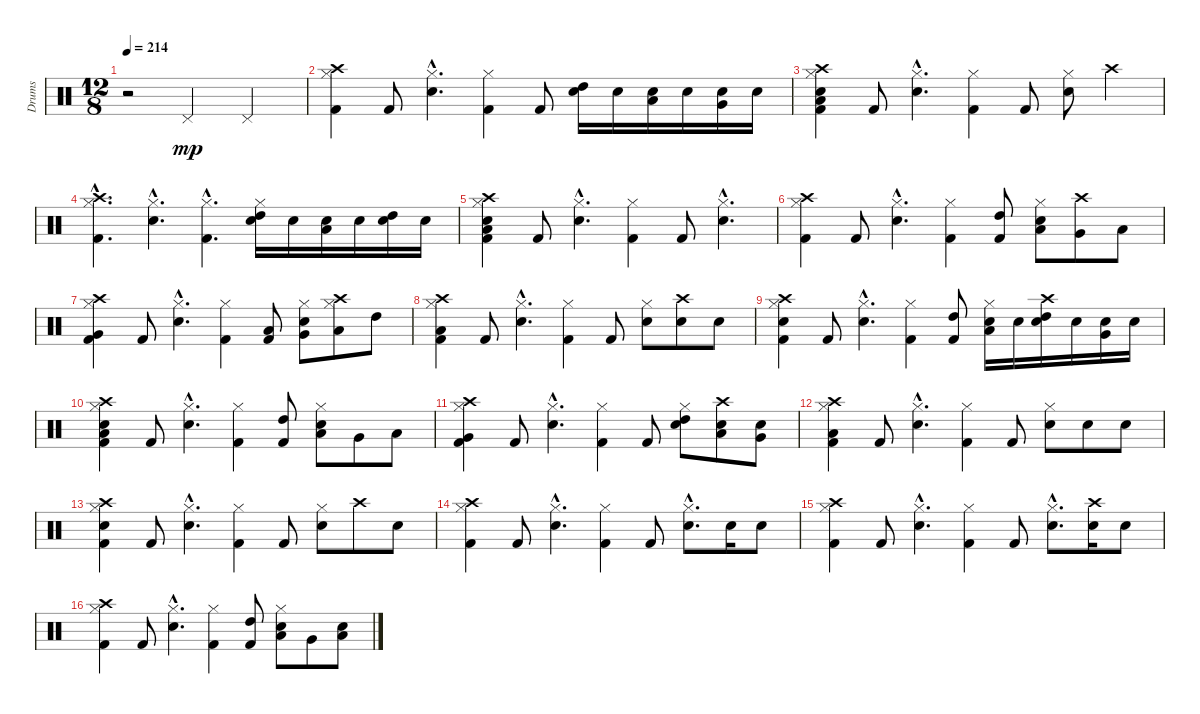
\track ("Drums" "Drums") {instrument percussion}
\staff {score}
\articulation defaults
\ts (12 8)
\tempo 214
\clef neutral
\ks c
r.2{dy mp} "Pedal Hi-Hat (hit)".2{balance 8} "Pedal Hi-Hat (hit)".2 |
("Hi-Hat (closed)" "Kick (hit) 2" "Crash high (hit)").4 "Kick (hit) 2".8 ("Hi-Hat (closed)"{hac} "Snare (hit) 2"{hac}).4{d} ("Hi-Hat (closed)" "Kick (hit) 2").4 "Kick (hit) 2".8 ("High Tom (hit)" "Electric Snare (hit)").16 "Snare (hit) 2".16 ("Low Tom (hit)" "Electric Snare (hit)").16 "Snare (hit) 2".16 ("Very Low Tom (hit)" "Electric Snare (hit)").16 "Snare (hit) 2".16 |
("Hi-Hat (closed)" "Low Floor Tom (hit)" "Crash high (hit)" "Electric Snare (hit)" "Kick (hit) 2").4 "Kick (hit) 2".8 ("Hi-Hat (closed)"{hac} "Snare (hit) 2"{hac}).4{d} ("Hi-Hat (closed)" "Kick (hit) 2").4 "Kick (hit) 2".8 ("Hi-Hat (closed)" "Snare (hit) 2").8 "Crash high (hit)".4 |
("Hi-Hat (closed)"{hac} "Crash high (hit)"{hac} "Kick (hit) 2"{hac}).4{d} ("Hi-Hat (closed)"{hac} "Snare (hit) 2"{hac}).4{d} ("Hi-Hat (closed)"{hac} "Kick (hit) 2"{hac}).4{d} ("Hi-Hat (closed)" "High Tom (hit)" "Snare (hit) 2").16 "Electric Snare (hit)".16 ("Low Tom (hit)" "Snare (hit) 2").16 "Electric Snare (hit)".16 ("High Tom (hit)" "Snare (hit) 2").16 "Electric Snare (hit)".16 |
("Hi-Hat (closed)" "Low Floor Tom (hit)" "Snare (hit) 2" "Crash high (hit)" "Kick (hit) 2").4 "Kick (hit) 2".8 ("Hi-Hat (closed)"{hac} "Snare (hit) 2"{hac}).4{d} ("Hi-Hat (closed)" "Kick (hit) 2").4 "Kick (hit) 2".8 ("Hi-Hat (closed)"{hac} "Snare (hit) 2"{hac}).4{d} |
("Hi-Hat (closed)" "Crash high (hit)" "Kick (hit) 2").4 "Kick (hit) 2".8 ("Hi-Hat (closed)"{hac} "Snare (hit) 2"{hac}).4{d} ("Hi-Hat (closed)" "Kick (hit) 2").4 ("High Tom (hit)" "Kick (hit) 2").8 ("Hi-Hat (closed)" "Low Tom (hit)" "Snare (hit) 2").8 ("Very Low Tom (hit)" "Crash high (hit)").8 "Low Floor Tom (hit)".8 |
("Very Low Tom (hit)" "Hi-Hat (closed)" "Crash high (hit)" "Kick (hit) 2").4 "Kick (hit) 2".8 ("Hi-Hat (closed)"{hac} "Snare (hit) 2"{hac}).4{d} ("Hi-Hat (closed)" "Kick (hit) 2").4 ("Low Floor Tom (hit)" "Kick (hit) 2").8 ("Hi-Hat (closed)" "Very Low Tom (hit)" "Snare (hit) 2").8 ("Low Tom (hit)" "Crash high (hit)" "Hi-Hat (closed)").8 "High Tom (hit)".8 |
("Low Tom (hit)" "Hi-Hat (closed)" "Crash high (hit)" "Kick (hit) 2").4 "Kick (hit) 2".8 ("Hi-Hat (closed)"{hac} "Snare (hit) 2"{hac}).4{d} ("Hi-Hat (closed)" "Kick (hit) 2").4 "Kick (hit) 2".8 ("Hi-Hat (closed)" "Snare (hit) 2").8 ("Snare (hit) 2" "Crash high (hit)").8 "Snare (hit) 2".8 |
("Snare (hit) 2" "Hi-Hat (closed)" "Crash high (hit)" "Kick (hit) 2").4 "Kick (hit) 2".8 ("Hi-Hat (closed)"{hac} "Snare (hit) 2"{hac}).4{d} ("Hi-Hat (closed)" "Kick (hit) 2").4 ("High Tom (hit)" "Kick (hit) 2").8 ("Hi-Hat (closed)" "Low Tom (hit)" "Snare (hit) 2").16 "Electric Snare (hit)".16 ("High Tom (hit)" "Crash high (hit)" "Snare (hit) 2").16 "Electric Snare (hit)".16 ("Very Low Tom (hit)" "Snare (hit) 2").16 "Electric Snare (hit)".16 |
("Low Tom (hit)" "Hi-Hat (closed)" "Snare (hit) 2" "Crash high (hit)" "Kick (hit) 2").4 "Kick (hit) 2".8 ("Hi-Hat (closed)"{hac} "Snare (hit) 2"{hac}).4{d} ("Hi-Hat (closed)" "Kick (hit) 2").4 ("High Tom (hit)" "Kick (hit) 2").8 ("Hi-Hat (closed)" "Low Tom (hit)" "Snare (hit) 2").8 "Very Low Tom (hit)".8 "Low Floor Tom (hit)".8 |
("Very Low Tom (hit)" "Hi-Hat (closed)" "Crash high (hit)" "Kick (hit) 2").4 "Kick (hit) 2".8 ("Hi-Hat (closed)"{hac} "Snare (hit) 2"{hac}).4{d} ("Hi-Hat (closed)" "Kick (hit) 2").4 "Kick (hit) 2".8 ("Hi-Hat (closed)" "High Tom (hit)" "Snare (hit) 2").8 ("Low Tom (hit)" "Crash high (hit)" "Snare (hit) 2").8 ("Very Low Tom (hit)" "Snare (hit) 2").8 |
("Low Floor Tom (hit)" "Hi-Hat (closed)" "Crash high (hit)" "Kick (hit) 2").4 "Kick (hit) 2".8 ("Hi-Hat (closed)"{hac} "Snare (hit) 2"{hac}).4{d} ("Hi-Hat (closed)" "Kick (hit) 2").4 "Kick (hit) 2".8 ("Hi-Hat (closed)" "Snare (hit) 2").8 "Electric Snare (hit)".8 "Snare (hit) 2".8 |
("Electric Snare (hit)" "Hi-Hat (closed)" "Crash high (hit)" "Kick (hit) 2").4 "Kick (hit) 2".8 ("Hi-Hat (closed)"{hac} "Snare (hit) 2"{hac}).4{d} ("Hi-Hat (closed)" "Kick (hit) 2").4 "Kick (hit) 2".8 ("Hi-Hat (closed)" "Snare (hit) 2").8 "Crash high (hit)".8 "Snare (hit) 2".8 |
("Hi-Hat (closed)" "Crash high (hit)" "Kick (hit) 2").4 "Kick (hit) 2".8 ("Hi-Hat (closed)"{hac} "Snare (hit) 2"{hac}).4{d} ("Hi-Hat (closed)" "Kick (hit) 2").4 "Kick (hit) 2".8 ("Hi-Hat (closed)"{hac} "Snare (hit) 2"{hac}).8{d} "Snare (hit) 2".16 "Snare (hit) 2".8 |
("Hi-Hat (closed)" "Crash high (hit)" "Kick (hit) 2").4 "Kick (hit) 2".8 ("Hi-Hat (closed)"{hac} "Snare (hit) 2"{hac}).4{d} ("Hi-Hat (closed)" "Kick (hit) 2").4 "Kick (hit) 2".8 ("Hi-Hat (closed)"{hac} "Snare (hit) 2"{hac}).8{d} ("Snare (hit) 2" "Crash high (hit)").16 "Snare (hit) 2".8 |
("Hi-Hat (closed)" "Crash high (hit)" "Kick (hit) 2").4 "Kick (hit) 2".8 ("Hi-Hat (closed)"{hac} "Snare (hit) 2"{hac}).4{d} ("Hi-Hat (closed)" "Kick (hit) 2").4 ("High Tom (hit)" "Kick (hit) 2").8 ("Hi-Hat (closed)" "Low Tom (hit)" "Snare (hit) 2").8 "Very Low Tom (hit)".8 ("Low Floor Tom (hit)" "Snare (hit) 2").8
